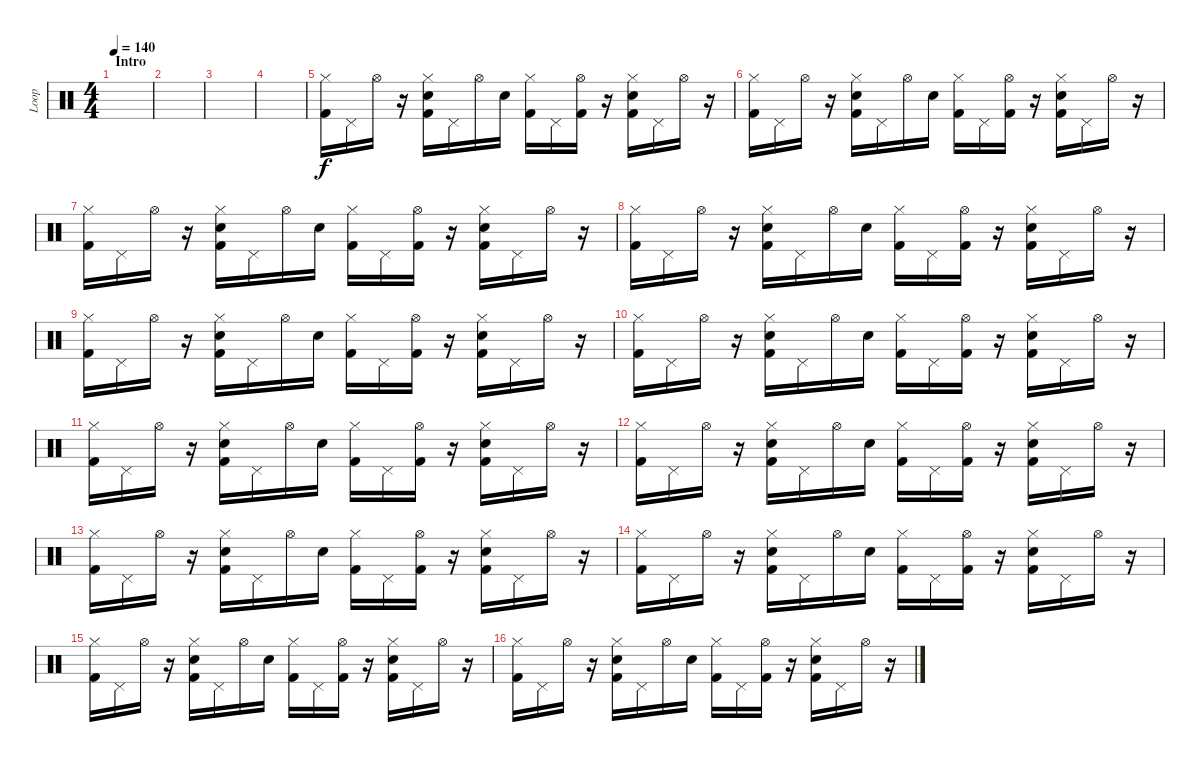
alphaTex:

\track ("Loop" "Loop") {instrument percussion}
\staff {score}
\articulation defaults
\ts (4 4)
\section ("" "Intro")
\tempo 140
\clef neutral
\ks c
|
|
|
|
("Hi-Hat (closed)" "Kick (hit) 2").16 "Pedal Hi-Hat (hit)".16 "Hi-Hat (open)".16 r.16 ("Hi-Hat (closed)" "Hand Clap (hit)" "Kick (hit) 2").16 "Pedal Hi-Hat (hit)".16 "Hi-Hat (open)".16 "Hand Clap (hit)".16 ("Hi-Hat (closed)" "Kick (hit) 2").16 "Pedal Hi-Hat (hit)".16 ("Hi-Hat (open)" "Kick (hit) 2").16 r.16 ("Hi-Hat (closed)" "Hand Clap (hit)" "Kick (hit) 2").16 "Pedal Hi-Hat (hit)".16 "Hi-Hat (open)".16 r.16 |
("Hi-Hat (closed)" "Kick (hit) 2").16 "Pedal Hi-Hat (hit)".16 "Hi-Hat (open)".16 r.16 ("Hi-Hat (closed)" "Hand Clap (hit)" "Kick (hit) 2").16 "Pedal Hi-Hat (hit)".16 "Hi-Hat (open)".16 "Hand Clap (hit)".16 ("Hi-Hat (closed)" "Kick (hit) 2").16 "Pedal Hi-Hat (hit)".16 ("Hi-Hat (open)" "Kick (hit) 2").16 r.16 ("Hi-Hat (closed)" "Hand Clap (hit)" "Kick (hit) 2").16 "Pedal Hi-Hat (hit)".16 "Hi-Hat (open)".16 r.16 |
("Hi-Hat (closed)" "Kick (hit) 2").16 "Pedal Hi-Hat (hit)".16 "Hi-Hat (open)".16 r.16 ("Hi-Hat (closed)" "Hand Clap (hit)" "Kick (hit) 2").16 "Pedal Hi-Hat (hit)".16 "Hi-Hat (open)".16 "Hand Clap (hit)".16 ("Hi-Hat (closed)" "Kick (hit) 2").16 "Pedal Hi-Hat (hit)".16 ("Hi-Hat (open)" "Kick (hit) 2").16 r.16 ("Hi-Hat (closed)" "Hand Clap (hit)" "Kick (hit) 2").16 "Pedal Hi-Hat (hit)".16 "Hi-Hat (open)".16 r.16 |
("Hi-Hat (closed)" "Kick (hit) 2").16 "Pedal Hi-Hat (hit)".16 "Hi-Hat (open)".16 r.16 ("Hi-Hat (closed)" "Hand Clap (hit)" "Kick (hit) 2").16 "Pedal Hi-Hat (hit)".16 "Hi-Hat (open)".16 "Hand Clap (hit)".16 ("Hi-Hat (closed)" "Kick (hit) 2").16 "Pedal Hi-Hat (hit)".16 ("Hi-Hat (open)" "Kick (hit) 2").16 r.16 ("Hi-Hat (closed)" "Hand Clap (hit)" "Kick (hit) 2").16 "Pedal Hi-Hat (hit)".16 "Hi-Hat (open)".16 r.16 |
("Hi-Hat (closed)" "Kick (hit) 2").16 "Pedal Hi-Hat (hit)".16 "Hi-Hat (open)".16 r.16 ("Hi-Hat (closed)" "Hand Clap (hit)" "Kick (hit) 2").16 "Pedal Hi-Hat (hit)".16 "Hi-Hat (open)".16 "Hand Clap (hit)".16 ("Hi-Hat (closed)" "Kick (hit) 2").16 "Pedal Hi-Hat (hit)".16 ("Hi-Hat (open)" "Kick (hit) 2").16 r.16 ("Hi-Hat (closed)" "Hand Clap (hit)" "Kick (hit) 2").16 "Pedal Hi-Hat (hit)".16 "Hi-Hat (open)".16 r.16 |
("Hi-Hat (closed)" "Kick (hit) 2").16 "Pedal Hi-Hat (hit)".16 "Hi-Hat (open)".16 r.16 ("Hi-Hat (closed)" "Hand Clap (hit)" "Kick (hit) 2").16 "Pedal Hi-Hat (hit)".16 "Hi-Hat (open)".16 "Hand Clap (hit)".16 ("Hi-Hat (closed)" "Kick (hit) 2").16 "Pedal Hi-Hat (hit)".16 ("Hi-Hat (open)" "Kick (hit) 2").16 r.16 ("Hi-Hat (closed)" "Hand Clap (hit)" "Kick (hit) 2").16 "Pedal Hi-Hat (hit)".16 "Hi-Hat (open)".16 r.16 |
("Hi-Hat (closed)" "Kick (hit) 2").16 "Pedal Hi-Hat (hit)".16 "Hi-Hat (open)".16 r.16 ("Hi-Hat (closed)" "Hand Clap (hit)" "Kick (hit) 2").16 "Pedal Hi-Hat (hit)".16 "Hi-Hat (open)".16 "Hand Clap (hit)".16 ("Hi-Hat (closed)" "Kick (hit) 2").16 "Pedal Hi-Hat (hit)".16 ("Hi-Hat (open)" "Kick (hit) 2").16 r.16 ("Hi-Hat (closed)" "Hand Clap (hit)" "Kick (hit) 2").16 "Pedal Hi-Hat (hit)".16 "Hi-Hat (open)".16 r.16 |
("Hi-Hat (closed)" "Kick (hit) 2").16 "Pedal Hi-Hat (hit)".16 "Hi-Hat (open)".16 r.16 ("Hi-Hat (closed)" "Hand Clap (hit)" "Kick (hit) 2").16 "Pedal Hi-Hat (hit)".16 "Hi-Hat (open)".16 "Hand Clap (hit)".16 ("Hi-Hat (closed)" "Kick (hit) 2").16 "Pedal Hi-Hat (hit)".16 ("Hi-Hat (open)" "Kick (hit) 2").16 r.16 ("Hi-Hat (closed)" "Hand Clap (hit)" "Kick (hit) 2").16 "Pedal Hi-Hat (hit)".16 "Hi-Hat (open)".16 r.16 |
("Hi-Hat (closed)" "Kick (hit) 2").16 "Pedal Hi-Hat (hit)".16 "Hi-Hat (open)".16 r.16 ("Hi-Hat (closed)" "Hand Clap (hit)" "Kick (hit) 2").16 "Pedal Hi-Hat (hit)".16 "Hi-Hat (open)".16 "Hand Clap (hit)".16 ("Hi-Hat (closed)" "Kick (hit) 2").16 "Pedal Hi-Hat (hit)".16 ("Hi-Hat (open)" "Kick (hit) 2").16 r.16 ("Hi-Hat (closed)" "Hand Clap (hit)" "Kick (hit) 2").16 "Pedal Hi-Hat (hit)".16 "Hi-Hat (open)".16 r.16 |
("Hi-Hat (closed)" "Kick (hit) 2").16 "Pedal Hi-Hat (hit)".16 "Hi-Hat (open)".16 r.16 ("Hi-Hat (closed)" "Hand Clap (hit)" "Kick (hit) 2").16 "Pedal Hi-Hat (hit)".16 "Hi-Hat (open)".16 "Hand Clap (hit)".16 ("Hi-Hat (closed)" "Kick (hit) 2").16 "Pedal Hi-Hat (hit)".16 ("Hi-Hat (open)" "Kick (hit) 2").16 r.16 ("Hi-Hat (closed)" "Hand Clap (hit)" "Kick (hit) 2").16 "Pedal Hi-Hat (hit)".16 "Hi-Hat (open)".16 r.16 |
("Hi-Hat (closed)" "Kick (hit) 2").16 "Pedal Hi-Hat (hit)".16 "Hi-Hat (open)".16 r.16 ("Hi-Hat (closed)" "Hand Clap (hit)" "Kick (hit) 2").16 "Pedal Hi-Hat (hit)".16 "Hi-Hat (open)".16 "Hand Clap (hit)".16 ("Hi-Hat (closed)" "Kick (hit) 2").16 "Pedal Hi-Hat (hit)".16 ("Hi-Hat (open)" "Kick (hit) 2").16 r.16 ("Hi-Hat (closed)" "Hand Clap (hit)" "Kick (hit) 2").16 "Pedal Hi-Hat (hit)".16 "Hi-Hat (open)".16 r.16 |
("Hi-Hat (closed)" "Kick (hit) 2").16 "Pedal Hi-Hat (hit)".16 "Hi-Hat (open)".16 r.16 ("Hi-Hat (closed)" "Hand Clap (hit)" "Kick (hit) 2").16 "Pedal Hi-Hat (hit)".16 "Hi-Hat (open)".16 "Hand Clap (hit)".16 ("Hi-Hat (closed)" "Kick (hit) 2").16 "Pedal Hi-Hat (hit)".16 ("Hi-Hat (open)" "Kick (hit) 2").16 r.16 ("Hi-Hat (closed)" "Hand Clap (hit)" "Kick (hit) 2").16 "Pedal Hi-Hat (hit)".16 "Hi-Hat (open)".16 r.16
